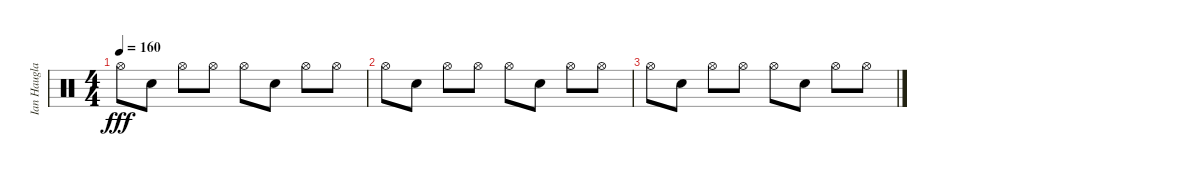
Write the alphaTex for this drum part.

\track ("Ian Haugland" "Ian Haugla") {instrument percussion}
\staff {score}
\articulation defaults
\ts (4 4)
\tempo 160
\clef neutral
\ks c "Hi-Hat (open)".8{dy fff} "Electric Snare (hit)".8 "Hi-Hat (open)".8 "Hi-Hat (open)".8 "Hi-Hat (open)".8 "Snare (hit) 2".8 "Hi-Hat (open)".8 "Hi-Hat (open)".8
|
"Hi-Hat (open)".8 "Electric Snare (hit)".8 "Hi-Hat (open)".8 "Hi-Hat (open)".8 "Hi-Hat (open)".8 "Snare (hit) 2".8 "Hi-Hat (open)".8 "Hi-Hat (open)".8 |
"Hi-Hat (open)".8 "Electric Snare (hit)".8 "Hi-Hat (open)".8 "Hi-Hat (open)".8 "Hi-Hat (open)".8 "Snare (hit) 2".8 "Hi-Hat (open)".8 "Hi-Hat (open)".8
